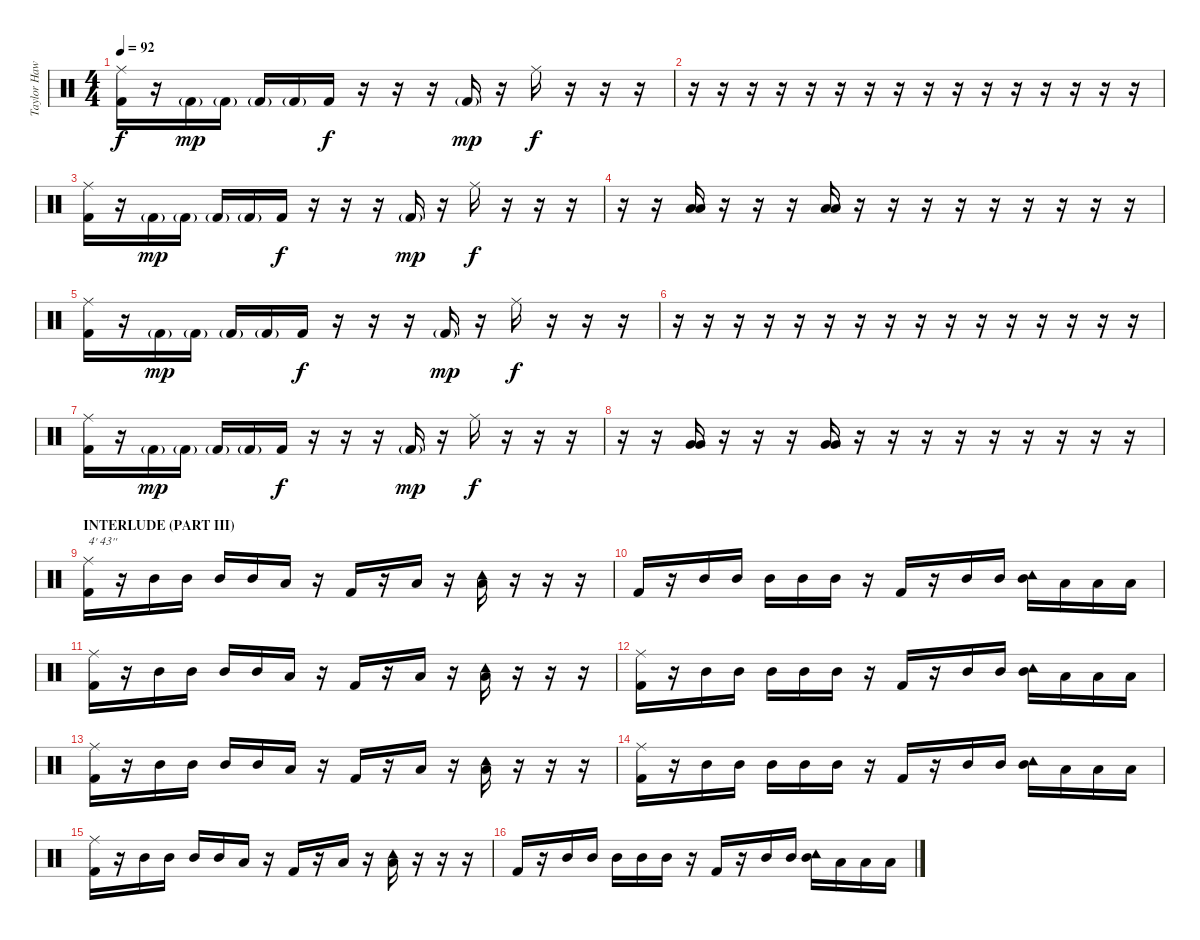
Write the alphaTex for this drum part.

\track ("Taylor Hawkins (Drums)" "Taylor Haw") {instrument percussion}
\staff {score}
\articulation defaults
\ts (4 4)
\tempo 92
\clef neutral
\ks c
("Ride (middle)" "Kick (hit) 2").16{dy f} r.16 "Kick (hit) 2"{g}.16{dy mp} "Kick (hit) 2"{g}.16 "Kick (hit) 2"{g}.16 "Kick (hit) 2"{g}.16 "Kick (hit) 2".16{dy f} r.16 r.16 r.16 "Kick (hit) 2"{g}.16{dy mp} r.16 "Ride (middle)".16{dy f} r.16 r.16 r.16 |
r.16 r.16 r.16 r.16 r.16 r.16 r.16 r.16 r.16 r.16 r.16 r.16 r.16 r.16 r.16 r.16 |
("Ride (middle)" "Kick (hit) 2").16 r.16 "Kick (hit) 2"{g}.16{dy mp} "Kick (hit) 2"{g}.16 "Kick (hit) 2"{g}.16 "Kick (hit) 2"{g}.16 "Kick (hit) 2".16{dy f} r.16 r.16 r.16 "Kick (hit) 2"{g}.16{dy mp} r.16 "Ride (middle)".16{dy f} r.16 r.16 r.16 |
r.16 r.16 ("Low Tom (hit)" "Low Tom (hit)").16 r.16 r.16 r.16 ("Low Tom (hit)" "Low Tom (hit)").16 r.16 r.16 r.16 r.16 r.16 r.16 r.16 r.16 r.16 |
("Ride (middle)" "Kick (hit) 2").16 r.16 "Kick (hit) 2"{g}.16{dy mp} "Kick (hit) 2"{g}.16 "Kick (hit) 2"{g}.16 "Kick (hit) 2"{g}.16 "Kick (hit) 2".16{dy f} r.16 r.16 r.16 "Kick (hit) 2"{g}.16{dy mp} r.16 "Ride (middle)".16{dy f} r.16 r.16 r.16 |
r.16 r.16 r.16 r.16 r.16 r.16 r.16 r.16 r.16 r.16 r.16 r.16 r.16 r.16 r.16 r.16 |
("Ride (middle)" "Kick (hit) 2").16 r.16 "Kick (hit) 2"{g}.16{dy mp} "Kick (hit) 2"{g}.16 "Kick (hit) 2"{g}.16 "Kick (hit) 2"{g}.16 "Kick (hit) 2".16{dy f} r.16 r.16 r.16 "Kick (hit) 2"{g}.16{dy mp} r.16 "Ride (middle)".16{dy f} r.16 r.16 r.16 |
r.16 r.16 ("Very Low Tom (hit)" "Very Low Tom (hit)").16 r.16 r.16 r.16 ("Very Low Tom (hit)" "Very Low Tom (hit)").16 r.16 r.16 r.16 r.16 r.16 r.16 r.16 r.16 r.16 |
\section ("" "INTERLUDE (PART III)")
("Ride (middle)" "Kick (hit) 2").16{txt "4' 43''"} r.16 "Mid Tom (hit)".16 "Mid Tom (hit)".16 "Mid Tom (hit)".16 "Mid Tom (hit)".16 "Low Tom (hit)".16 r.16 "Kick (hit) 2".16 r.16 "Low Tom (hit)".16 r.16 ("Tambourine (hit)" "Low Tom (hit)").16 r.16 r.16 r.16 |
"Kick (hit) 2".16 r.16 "Mid Tom (hit)".16 "Mid Tom (hit)".16 "Mid Tom (hit)".16 "Mid Tom (hit)".16 "Mid Tom (hit)".16 r.16 "Kick (hit) 2".16 r.16 "Mid Tom (hit)".16 "Mid Tom (hit)".16 ("Tambourine (hit)" "Mid Tom (hit)").16 "Low Tom (hit)".16 "Low Tom (hit)".16 "Low Tom (hit)".16 |
("Ride (middle)" "Kick (hit) 2").16 r.16 "Mid Tom (hit)".16 "Mid Tom (hit)".16 "Mid Tom (hit)".16 "Mid Tom (hit)".16 "Low Tom (hit)".16 r.16 "Kick (hit) 2".16 r.16 "Low Tom (hit)".16 r.16 ("Tambourine (hit)" "Low Tom (hit)").16 r.16 r.16 r.16 |
("Ride (middle)" "Kick (hit) 2").16 r.16 "Mid Tom (hit)".16 "Mid Tom (hit)".16 "Mid Tom (hit)".16 "Mid Tom (hit)".16 "Mid Tom (hit)".16 r.16 "Kick (hit) 2".16 r.16 "Mid Tom (hit)".16 "Mid Tom (hit)".16 ("Tambourine (hit)" "Mid Tom (hit)").16 "Low Tom (hit)".16 "Low Tom (hit)".16 "Low Tom (hit)".16 |
("Ride (middle)" "Kick (hit) 2").16 r.16 "Mid Tom (hit)".16 "Mid Tom (hit)".16 "Mid Tom (hit)".16 "Mid Tom (hit)".16 "Low Tom (hit)".16 r.16 "Kick (hit) 2".16 r.16 "Low Tom (hit)".16 r.16 ("Tambourine (hit)" "Low Tom (hit)").16 r.16 r.16 r.16 |
("Ride (middle)" "Kick (hit) 2").16 r.16 "Mid Tom (hit)".16 "Mid Tom (hit)".16 "Mid Tom (hit)".16 "Mid Tom (hit)".16 "Mid Tom (hit)".16 r.16 "Kick (hit) 2".16 r.16 "Mid Tom (hit)".16 "Mid Tom (hit)".16 ("Tambourine (hit)" "Mid Tom (hit)").16 "Low Tom (hit)".16 "Low Tom (hit)".16 "Low Tom (hit)".16 |
("Ride (middle)" "Kick (hit) 2").16 r.16 "Mid Tom (hit)".16 "Mid Tom (hit)".16 "Mid Tom (hit)".16 "Mid Tom (hit)".16 "Low Tom (hit)".16 r.16 "Kick (hit) 2".16 r.16 "Low Tom (hit)".16 r.16 ("Tambourine (hit)" "Low Tom (hit)").16 r.16 r.16 r.16 |
"Kick (hit) 2".16 r.16 "Mid Tom (hit)".16 "Mid Tom (hit)".16 "Mid Tom (hit)".16 "Mid Tom (hit)".16 "Mid Tom (hit)".16 r.16 "Kick (hit) 2".16 r.16 "Mid Tom (hit)".16 "Mid Tom (hit)".16 ("Tambourine (hit)" "Mid Tom (hit)").16 "Low Tom (hit)".16 "Low Tom (hit)".16 "Low Tom (hit)".16
